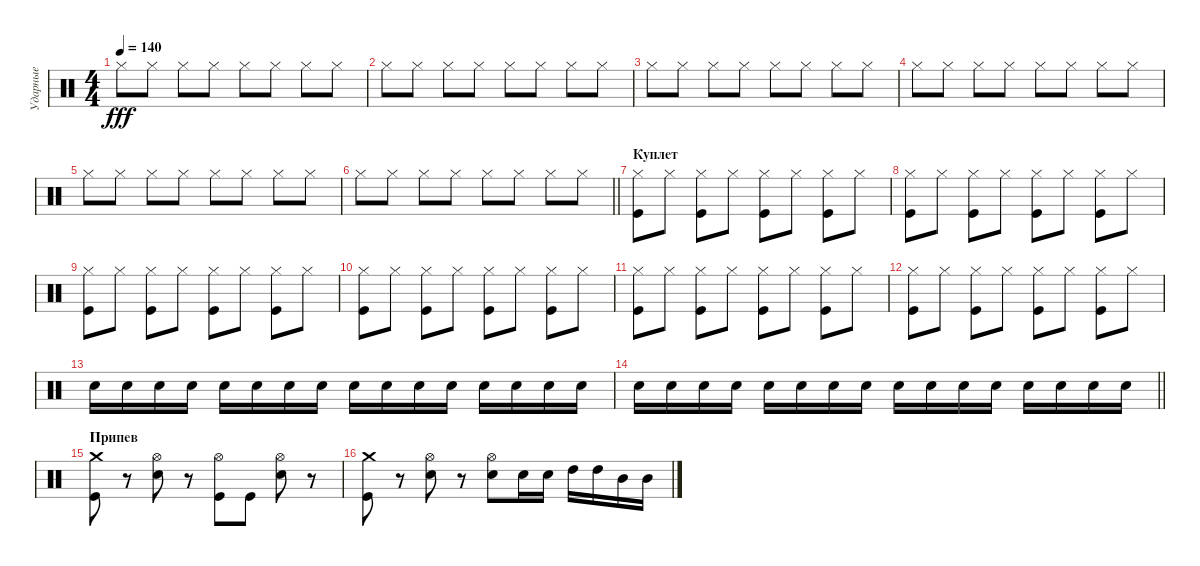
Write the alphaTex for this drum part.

\track ("Ударные" "Ударные") {instrument percussion}
\staff {score}
\articulation defaults
\ts (4 4)
\tempo 140
\clef neutral
\ks c "Hi-Hat (closed)".8{dy fff} "Hi-Hat (closed)".8 "Hi-Hat (closed)".8 "Hi-Hat (closed)".8 "Hi-Hat (closed)".8 "Hi-Hat (closed)".8 "Hi-Hat (closed)".8 "Hi-Hat (closed)".8
|
"Hi-Hat (closed)".8 "Hi-Hat (closed)".8 "Hi-Hat (closed)".8 "Hi-Hat (closed)".8 "Hi-Hat (closed)".8 "Hi-Hat (closed)".8 "Hi-Hat (closed)".8 "Hi-Hat (closed)".8 |
"Hi-Hat (closed)".8 "Hi-Hat (closed)".8 "Hi-Hat (closed)".8 "Hi-Hat (closed)".8 "Hi-Hat (closed)".8 "Hi-Hat (closed)".8 "Hi-Hat (closed)".8 "Hi-Hat (closed)".8 |
"Hi-Hat (closed)".8 "Hi-Hat (closed)".8 "Hi-Hat (closed)".8 "Hi-Hat (closed)".8 "Hi-Hat (closed)".8 "Hi-Hat (closed)".8 "Hi-Hat (closed)".8 "Hi-Hat (closed)".8 |
"Hi-Hat (closed)".8 "Hi-Hat (closed)".8 "Hi-Hat (closed)".8 "Hi-Hat (closed)".8 "Hi-Hat (closed)".8 "Hi-Hat (closed)".8 "Hi-Hat (closed)".8 "Hi-Hat (closed)".8 |
\barLineRight lightlight "Hi-Hat (closed)".8 "Hi-Hat (closed)".8 "Hi-Hat (closed)".8 "Hi-Hat (closed)".8 "Hi-Hat (closed)".8 "Hi-Hat (closed)".8 "Hi-Hat (closed)".8 "Hi-Hat (closed)".8
|
\section ("" "Куплет")
("Hi-Hat (closed)" "Kick (hit)").8 "Hi-Hat (closed)".8 ("Hi-Hat (closed)" "Kick (hit)").8 "Hi-Hat (closed)".8 ("Hi-Hat (closed)" "Kick (hit)").8 "Hi-Hat (closed)".8 ("Hi-Hat (closed)" "Kick (hit)").8 "Hi-Hat (closed)".8 |
("Hi-Hat (closed)" "Kick (hit)").8 "Hi-Hat (closed)".8 ("Hi-Hat (closed)" "Kick (hit)").8 "Hi-Hat (closed)".8 ("Hi-Hat (closed)" "Kick (hit)").8 "Hi-Hat (closed)".8 ("Hi-Hat (closed)" "Kick (hit)").8 "Hi-Hat (closed)".8 |
("Hi-Hat (closed)" "Kick (hit)").8 "Hi-Hat (closed)".8 ("Hi-Hat (closed)" "Kick (hit)").8 "Hi-Hat (closed)".8 ("Hi-Hat (closed)" "Kick (hit)").8 "Hi-Hat (closed)".8 ("Hi-Hat (closed)" "Kick (hit)").8 "Hi-Hat (closed)".8 |
("Hi-Hat (closed)" "Kick (hit)").8 "Hi-Hat (closed)".8 ("Hi-Hat (closed)" "Kick (hit)").8 "Hi-Hat (closed)".8 ("Hi-Hat (closed)" "Kick (hit)").8 "Hi-Hat (closed)".8 ("Hi-Hat (closed)" "Kick (hit)").8 "Hi-Hat (closed)".8 |
("Hi-Hat (closed)" "Kick (hit)").8 "Hi-Hat (closed)".8 ("Hi-Hat (closed)" "Kick (hit)").8 "Hi-Hat (closed)".8 ("Hi-Hat (closed)" "Kick (hit)").8 "Hi-Hat (closed)".8 ("Hi-Hat (closed)" "Kick (hit)").8 "Hi-Hat (closed)".8 |
("Hi-Hat (closed)" "Kick (hit)").8 "Hi-Hat (closed)".8 ("Hi-Hat (closed)" "Kick (hit)").8 "Hi-Hat (closed)".8 ("Hi-Hat (closed)" "Kick (hit)").8 "Hi-Hat (closed)".8 ("Hi-Hat (closed)" "Kick (hit)").8 "Hi-Hat (closed)".8 |
"Electric Snare (hit)".16 "Electric Snare (hit)".16 "Electric Snare (hit)".16 "Electric Snare (hit)".16 "Electric Snare (hit)".16 "Electric Snare (hit)".16 "Electric Snare (hit)".16 "Electric Snare (hit)".16 "Electric Snare (hit)".16 "Electric Snare (hit)".16 "Electric Snare (hit)".16 "Electric Snare (hit)".16 "Electric Snare (hit)".16 "Electric Snare (hit)".16 "Electric Snare (hit)".16 "Electric Snare (hit)".16 |
\barLineRight lightlight "Electric Snare (hit)".16 "Electric Snare (hit)".16 "Electric Snare (hit)".16 "Electric Snare (hit)".16 "Electric Snare (hit)".16 "Electric Snare (hit)".16 "Electric Snare (hit)".16 "Electric Snare (hit)".16 "Electric Snare (hit)".16 "Electric Snare (hit)".16 "Electric Snare (hit)".16 "Electric Snare (hit)".16 "Electric Snare (hit)".16 "Electric Snare (hit)".16 "Electric Snare (hit)".16 "Electric Snare (hit)".16
|
\section ("" "Припев")
("Crash medium (hit)" "Kick (hit)").8 r.8 ("Hi-Hat (open)" "Electric Snare (hit)").8 r.8 ("Hi-Hat (open)" "Kick (hit)").8 "Kick (hit)".8 ("Hi-Hat (open)" "Electric Snare (hit)").8 r.8 |
("Crash medium (hit)" "Kick (hit)").8 r.8 ("Hi-Hat (open)" "Electric Snare (hit)").8 r.8 ("Hi-Hat (open)" "Electric Snare (hit)").8 "Electric Snare (hit)".16 "Electric Snare (hit)".16 "High Tom (hit)".16 "High Tom (hit)".16 "Mid Tom (hit)".16 "Mid Tom (hit)".16
